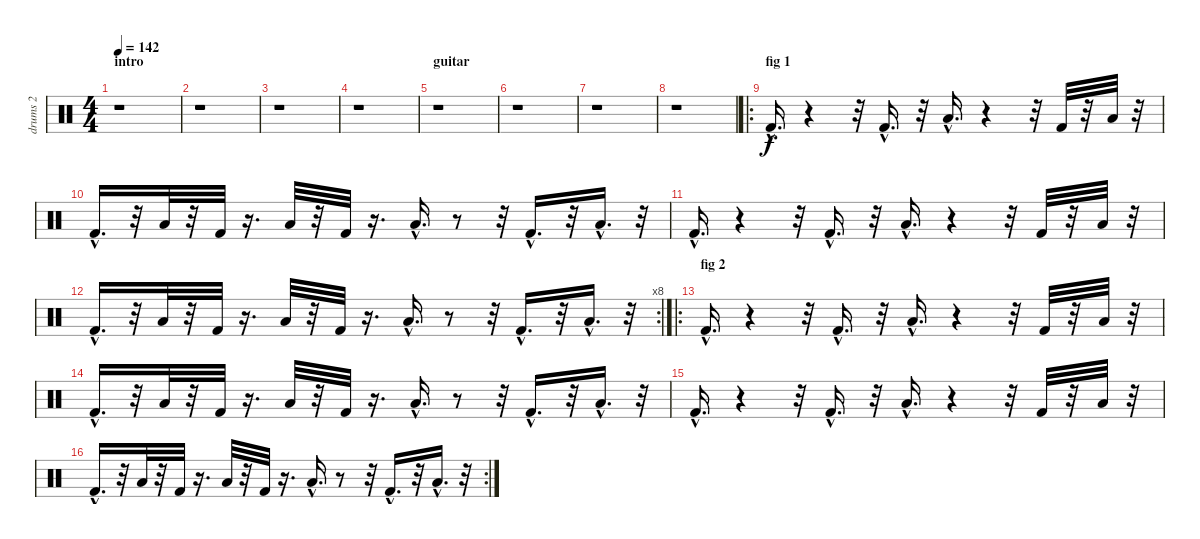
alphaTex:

\track ("drums 2" "drums 2") {instrument percussion}
\staff {score}
\articulation defaults
\ts (4 4)
\section ("" "intro")
\tempo 142
\clef neutral
\ks c
r.1{dy f} |
r.1 |
r.1 |
r.1 |
\section ("" "guitar")
r.1 |
r.1 |
r.1 |
r.1 |
\ro
\section ("" "fig 1")
"Kick (hit) 2"{hac}.16{d} r.4 r.32 "Kick (hit) 2"{hac}.16{d} r.32 "Low Tom (hit)"{hac}.16{d} r.4 r.32 "Kick (hit) 2".32 r.32 "Low Tom (hit)".32 r.32 |
"Kick (hit) 2"{hac}.16{d} r.32 "Low Tom (hit)".32 r.32 "Kick (hit) 2".32 r.16{d} "Low Tom (hit)".32 r.32 "Kick (hit) 2".32 r.16{d} "Low Tom (hit)"{hac}.16{d} r.8 r.32 "Kick (hit) 2"{hac}.16{d} r.32 "Low Tom (hit)"{hac}.16{d} r.32 |
"Kick (hit) 2"{hac}.16{d} r.4 r.32 "Kick (hit) 2"{hac}.16{d} r.32 "Low Tom (hit)"{hac}.16{d} r.4 r.32 "Kick (hit) 2".32 r.32 "Low Tom (hit)".32 r.32 |
\rc 8 "Kick (hit) 2"{hac}.16{d}
r.32 "Low Tom (hit)".32 r.32 "Kick (hit) 2".32 r.16{d} "Low Tom (hit)".32 r.32 "Kick (hit) 2".32 r.16{d} "Low Tom (hit)"{hac}.16{d} r.8 r.32 "Kick (hit) 2"{hac}.16{d} r.32 "Low Tom (hit)"{hac}.16{d} r.32 |
\ro
\section ("" "fig 2")
"Kick (hit) 2"{hac}.16{d} r.4 r.32 "Kick (hit) 2"{hac}.16{d} r.32 "Low Tom (hit)"{hac}.16{d} r.4 r.32 "Kick (hit) 2".32 r.32 "Low Tom (hit)".32 r.32 |
"Kick (hit) 2"{hac}.16{d} r.32 "Low Tom (hit)".32 r.32 "Kick (hit) 2".32 r.16{d} "Low Tom (hit)".32 r.32 "Kick (hit) 2".32 r.16{d} "Low Tom (hit)"{hac}.16{d} r.8 r.32 "Kick (hit) 2"{hac}.16{d} r.32 "Low Tom (hit)"{hac}.16{d} r.32 |
"Kick (hit) 2"{hac}.16{d} r.4 r.32 "Kick (hit) 2"{hac}.16{d} r.32 "Low Tom (hit)"{hac}.16{d} r.4 r.32 "Kick (hit) 2".32 r.32 "Low Tom (hit)".32 r.32 |
\rc 2 "Kick (hit) 2"{hac}.16{d}
r.32 "Low Tom (hit)".32 r.32 "Kick (hit) 2".32 r.16{d} "Low Tom (hit)".32 r.32 "Kick (hit) 2".32 r.16{d} "Low Tom (hit)"{hac}.16{d} r.8 r.32 "Kick (hit) 2"{hac}.16{d} r.32 "Low Tom (hit)"{hac}.16{d} r.32
